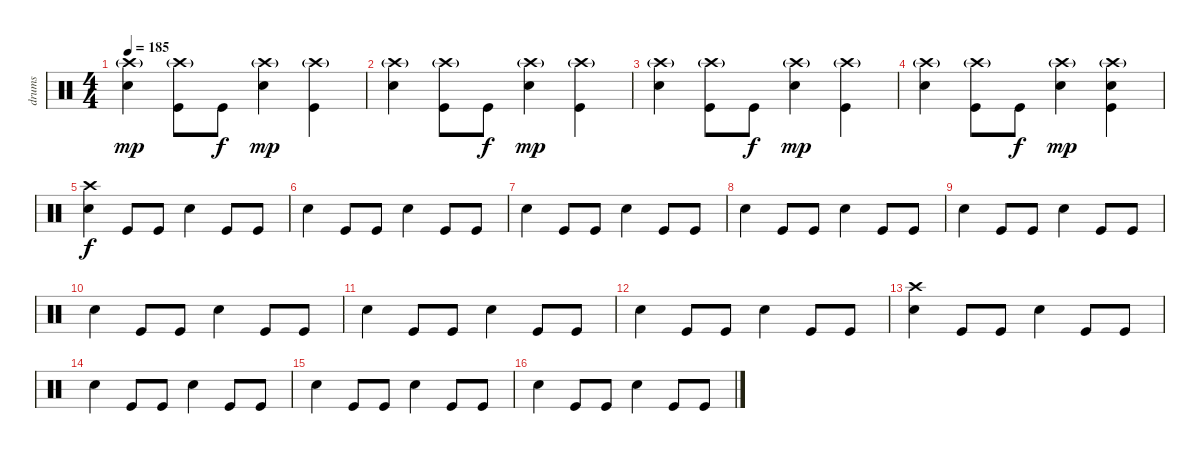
\track ("drums" "drums") {instrument percussion}
\staff {score}
\articulation defaults
\ts (4 4)
\tempo 185
\clef neutral
\ks c
("Crash high (hit)"{g} "Electric Snare (hit)").4{dy mp} ("Crash high (hit)"{g} "Kick (hit)").8 "Kick (hit)".8{dy f} ("Crash high (hit)"{g} "Electric Snare (hit)").4{dy mp} ("Crash high (hit)"{g} "Kick (hit)").4 |
("Crash high (hit)"{g} "Electric Snare (hit)").4 ("Crash high (hit)"{g} "Kick (hit)").8 "Kick (hit)".8{dy f} ("Crash high (hit)"{g} "Electric Snare (hit)").4{dy mp} ("Crash high (hit)"{g} "Kick (hit)").4 |
("Crash high (hit)"{g} "Electric Snare (hit)").4 ("Crash high (hit)"{g} "Kick (hit)").8 "Kick (hit)".8{dy f} ("Crash high (hit)"{g} "Electric Snare (hit)").4{dy mp} ("Crash high (hit)"{g} "Kick (hit)").4 |
("Crash high (hit)"{g} "Electric Snare (hit)").4 ("Crash high (hit)"{g} "Kick (hit)").8 "Kick (hit)".8{dy f} ("Crash high (hit)"{g} "Electric Snare (hit)").4{dy mp} ("Crash high (hit)"{g} "Electric Snare (hit)" "Kick (hit)").4 |
("Crash high (hit)" "Electric Snare (hit)").4{dy f} "Kick (hit)".8 "Kick (hit)".8 "Electric Snare (hit)".4 "Kick (hit)".8 "Kick (hit)".8 |
"Electric Snare (hit)".4 "Kick (hit)".8 "Kick (hit)".8 "Electric Snare (hit)".4 "Kick (hit)".8 "Kick (hit)".8 |
"Electric Snare (hit)".4 "Kick (hit)".8 "Kick (hit)".8 "Electric Snare (hit)".4 "Kick (hit)".8 "Kick (hit)".8 |
"Electric Snare (hit)".4 "Kick (hit)".8 "Kick (hit)".8 "Electric Snare (hit)".4 "Kick (hit)".8 "Kick (hit)".8 |
"Electric Snare (hit)".4 "Kick (hit)".8 "Kick (hit)".8 "Electric Snare (hit)".4 "Kick (hit)".8 "Kick (hit)".8 |
"Electric Snare (hit)".4 "Kick (hit)".8 "Kick (hit)".8 "Electric Snare (hit)".4 "Kick (hit)".8 "Kick (hit)".8 |
"Electric Snare (hit)".4 "Kick (hit)".8 "Kick (hit)".8 "Electric Snare (hit)".4 "Kick (hit)".8 "Kick (hit)".8 |
"Electric Snare (hit)".4 "Kick (hit)".8 "Kick (hit)".8 "Electric Snare (hit)".4 "Kick (hit)".8 "Kick (hit)".8 |
("Crash high (hit)" "Electric Snare (hit)").4 "Kick (hit)".8 "Kick (hit)".8 "Electric Snare (hit)".4 "Kick (hit)".8 "Kick (hit)".8 |
"Electric Snare (hit)".4 "Kick (hit)".8 "Kick (hit)".8 "Electric Snare (hit)".4 "Kick (hit)".8 "Kick (hit)".8 |
"Electric Snare (hit)".4 "Kick (hit)".8 "Kick (hit)".8 "Electric Snare (hit)".4 "Kick (hit)".8 "Kick (hit)".8 |
"Electric Snare (hit)".4 "Kick (hit)".8 "Kick (hit)".8 "Electric Snare (hit)".4 "Kick (hit)".8 "Kick (hit)".8
